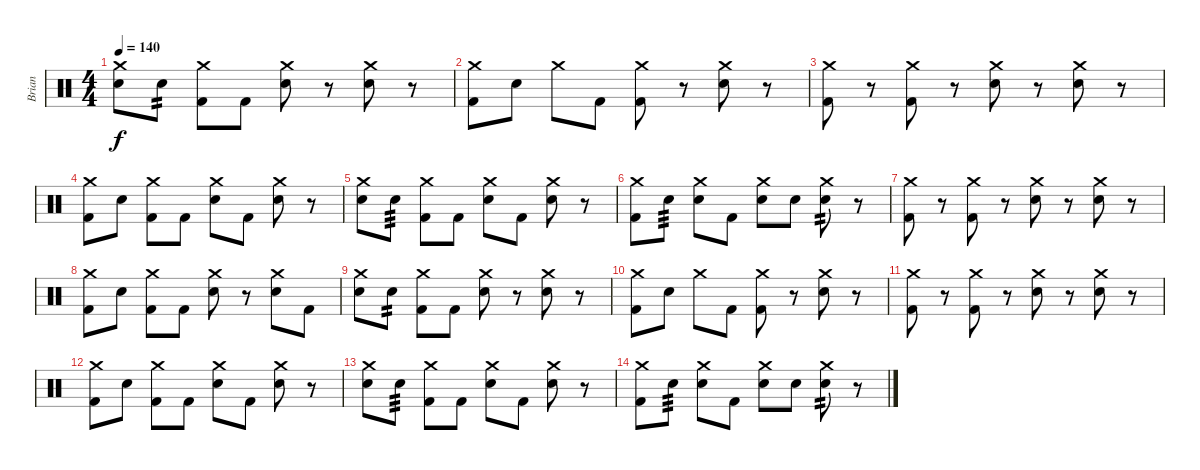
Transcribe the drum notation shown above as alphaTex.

\track ("Brian" "Brian") {instrument percussion}
\staff {score}
\articulation defaults
\ts (4 4)
\tempo 140
\clef neutral
\ks c
("Crash medium (hit)" "Electric Snare (hit)").8{dy f} "Electric Snare (hit)".8{tp 2} ("Crash medium (hit)" "Kick (hit) 2").8 "Kick (hit) 2".8 ("Crash medium (hit)" "Electric Snare (hit)").8 r.8 ("Crash medium (hit)" "Electric Snare (hit)").8 r.8 |
("Crash medium (hit)" "Kick (hit) 2").8 "Electric Snare (hit)".8 "Crash medium (hit)".8 "Kick (hit) 2".8 ("Crash medium (hit)" "Kick (hit) 2").8 r.8 ("Crash medium (hit)" "Electric Snare (hit)").8 r.8 |
("Crash medium (hit)" "Kick (hit) 2").8 r.8 ("Crash medium (hit)" "Kick (hit) 2").8 r.8 ("Crash medium (hit)" "Electric Snare (hit)").8 r.8 ("Crash medium (hit)" "Electric Snare (hit)").8 r.8 |
("Crash medium (hit)" "Kick (hit) 2").8 "Electric Snare (hit)".8 ("Crash medium (hit)" "Kick (hit) 2").8 "Kick (hit) 2".8 ("Crash medium (hit)" "Electric Snare (hit)").8 "Kick (hit) 2".8 ("Crash medium (hit)" "Electric Snare (hit)").8 r.8 |
("Crash medium (hit)" "Electric Snare (hit)").8 "Electric Snare (hit)".8{tp 3} ("Crash medium (hit)" "Kick (hit) 2").8 "Kick (hit) 2".8 ("Crash medium (hit)" "Electric Snare (hit)").8 "Kick (hit) 2".8 ("Crash medium (hit)" "Electric Snare (hit)").8 r.8 |
("Crash medium (hit)" "Kick (hit) 2").8 "Electric Snare (hit)".8{tp 3} ("Crash medium (hit)" "Electric Snare (hit)").8 "Kick (hit) 2".8 ("Crash medium (hit)" "Electric Snare (hit)").8 "Electric Snare (hit)".8 ("Crash medium (hit)" "Electric Snare (hit)").8{tp 2} r.8 |
("Crash medium (hit)" "Kick (hit) 2").8 r.8 ("Crash medium (hit)" "Kick (hit) 2").8 r.8 ("Crash medium (hit)" "Electric Snare (hit)").8 r.8 ("Crash medium (hit)" "Electric Snare (hit)").8 r.8 |
("Crash medium (hit)" "Kick (hit) 2").8 "Electric Snare (hit)".8 ("Crash medium (hit)" "Kick (hit) 2").8 "Kick (hit) 2".8 ("Crash medium (hit)" "Electric Snare (hit)").8 r.8 ("Crash medium (hit)" "Electric Snare (hit)").8 "Kick (hit) 2".8 |
("Crash medium (hit)" "Electric Snare (hit)").8 "Electric Snare (hit)".8{tp 2} ("Crash medium (hit)" "Kick (hit) 2").8 "Kick (hit) 2".8 ("Crash medium (hit)" "Electric Snare (hit)").8 r.8 ("Crash medium (hit)" "Electric Snare (hit)").8 r.8 |
("Crash medium (hit)" "Kick (hit) 2").8 "Electric Snare (hit)".8 "Crash medium (hit)".8 "Kick (hit) 2".8 ("Crash medium (hit)" "Kick (hit) 2").8 r.8 ("Crash medium (hit)" "Electric Snare (hit)").8 r.8 |
("Crash medium (hit)" "Kick (hit) 2").8 r.8 ("Crash medium (hit)" "Kick (hit) 2").8 r.8 ("Crash medium (hit)" "Electric Snare (hit)").8 r.8 ("Crash medium (hit)" "Electric Snare (hit)").8 r.8 |
("Crash medium (hit)" "Kick (hit) 2").8 "Electric Snare (hit)".8 ("Crash medium (hit)" "Kick (hit) 2").8 "Kick (hit) 2".8 ("Crash medium (hit)" "Electric Snare (hit)").8 "Kick (hit) 2".8 ("Crash medium (hit)" "Electric Snare (hit)").8 r.8 |
("Crash medium (hit)" "Electric Snare (hit)").8 "Electric Snare (hit)".8{tp 3} ("Crash medium (hit)" "Kick (hit) 2").8 "Kick (hit) 2".8 ("Crash medium (hit)" "Electric Snare (hit)").8 "Kick (hit) 2".8 ("Crash medium (hit)" "Electric Snare (hit)").8 r.8 |
("Crash medium (hit)" "Kick (hit) 2").8 "Electric Snare (hit)".8{tp 3} ("Crash medium (hit)" "Electric Snare (hit)").8 "Kick (hit) 2".8 ("Crash medium (hit)" "Electric Snare (hit)").8 "Electric Snare (hit)".8 ("Crash medium (hit)" "Electric Snare (hit)").8{tp 2} r.8
